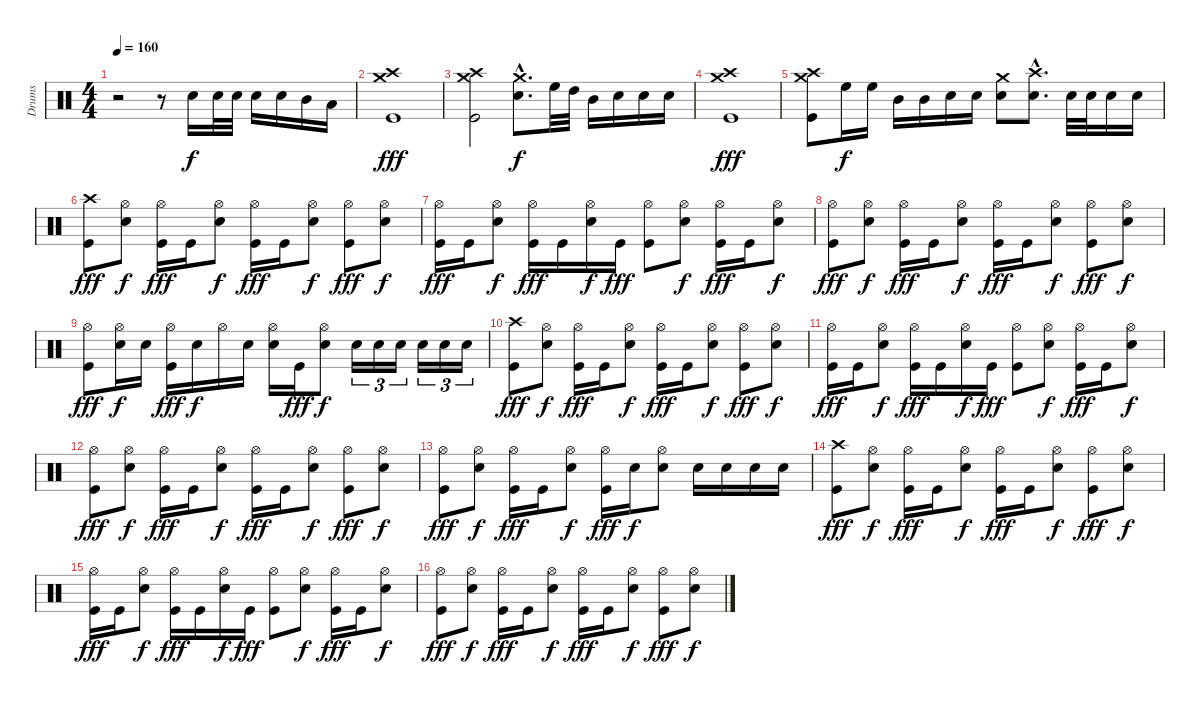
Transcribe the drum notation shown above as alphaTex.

\track ("Drums" "Drums") {instrument percussion}
\staff {score}
\articulation defaults
\ts (4 4)
\tempo 160
\clef neutral
\ks c
r.2{dy f} r.8 "Electric Snare (hit)".16 "Electric Snare (hit)".32 "Electric Snare (hit)".32 "Electric Snare (hit)".16 "Electric Snare (hit)".16 "Mid Tom (hit)".16 "Low Tom (hit)".16 |
("Crash medium (hit)" "Crash high (hit)" "Kick (hit)").1{dy fff} |
("Crash high (hit)" "Crash medium (hit)" "Kick (hit)").2 ("Crash medium (hit)"{hac} "Electric Snare (hit)"{hac}).8{d dy f} "High Floor Tom (hit)".32 "High Tom (hit)".32 "Mid Tom (hit)".16 "Electric Snare (hit)".16 "Electric Snare (hit)".16 "Electric Snare (hit)".16 |
("Crash medium (hit)" "Crash high (hit)" "Kick (hit)").1{dy fff} |
("Crash medium (hit)" "Crash high (hit)" "Kick (hit)").8 "High Floor Tom (hit)".16{dy f} "High Floor Tom (hit)".16 "Mid Tom (hit)".16 "Mid Tom (hit)".16 "Electric Snare (hit)".16 "Electric Snare (hit)".16 ("Crash medium (hit)" "Electric Snare (hit)").8 ("Crash high (hit)"{hac} "Electric Snare (hit)"{hac}).8{d} "Electric Snare (hit)".32 "Electric Snare (hit)".32 "Electric Snare (hit)".16 "Electric Snare (hit)".16 |
("Crash high (hit)" "Kick (hit)").8{dy fff} ("Hi-Hat (open)" "Electric Snare (hit)").8{dy f} ("Hi-Hat (open)" "Kick (hit)").16{dy fff} "Kick (hit)".16 ("Hi-Hat (open)" "Electric Snare (hit)").8{dy f} ("Hi-Hat (open)" "Kick (hit)").16{dy fff} "Kick (hit)".16 ("Hi-Hat (open)" "Electric Snare (hit)").8{dy f} ("Hi-Hat (open)" "Kick (hit)").8{dy fff} ("Hi-Hat (open)" "Electric Snare (hit)").8{dy f} |
("Hi-Hat (open)" "Kick (hit)").16{dy fff} "Kick (hit)".16 ("Hi-Hat (open)" "Electric Snare (hit)").8{dy f} ("Hi-Hat (open)" "Kick (hit)").16{dy fff} "Kick (hit)".16 ("Hi-Hat (open)" "Electric Snare (hit)").16{dy f} "Kick (hit)".16{dy fff} ("Hi-Hat (open)" "Kick (hit)").8 ("Hi-Hat (open)" "Electric Snare (hit)").8{dy f} ("Hi-Hat (open)" "Kick (hit)").16{dy fff} "Kick (hit)".16 ("Hi-Hat (open)" "Electric Snare (hit)").8{dy f} |
("Hi-Hat (open)" "Kick (hit)").8{dy fff} ("Hi-Hat (open)" "Electric Snare (hit)").8{dy f} ("Hi-Hat (open)" "Kick (hit)").16{dy fff} "Kick (hit)".16 ("Hi-Hat (open)" "Electric Snare (hit)").8{dy f} ("Hi-Hat (open)" "Kick (hit)").16{dy fff} "Kick (hit)".16 ("Hi-Hat (open)" "Electric Snare (hit)").8{dy f} ("Hi-Hat (open)" "Kick (hit)").8{dy fff} ("Hi-Hat (open)" "Electric Snare (hit)").8{dy f} |
("Hi-Hat (open)" "Kick (hit)").8{dy fff} ("Hi-Hat (open)" "Electric Snare (hit)").16{dy f} "Electric Snare (hit)".16 ("Hi-Hat (open)" "Kick (hit)").16{dy fff} "Electric Snare (hit)".16{dy f} "Hi-Hat (open)".16 "Electric Snare (hit)".16 ("Hi-Hat (open)" "Electric Snare (hit)").16 "Kick (hit)".16{dy fff} ("Hi-Hat (open)" "Electric Snare (hit)").8{dy f} "Electric Snare (hit)".16{tu (3 2)} "Electric Snare (hit)".16{tu (3 2)} "Electric Snare (hit)".16{tu (3 2)} "Electric Snare (hit)".16{tu (3 2)} "Electric Snare (hit)".16{tu (3 2)} "Electric Snare (hit)".16{tu (3 2)} |
("Crash high (hit)" "Kick (hit)").8{dy fff} ("Hi-Hat (open)" "Electric Snare (hit)").8{dy f} ("Hi-Hat (open)" "Kick (hit)").16{dy fff} "Kick (hit)".16 ("Hi-Hat (open)" "Electric Snare (hit)").8{dy f} ("Hi-Hat (open)" "Kick (hit)").16{dy fff} "Kick (hit)".16 ("Hi-Hat (open)" "Electric Snare (hit)").8{dy f} ("Hi-Hat (open)" "Kick (hit)").8{dy fff} ("Hi-Hat (open)" "Electric Snare (hit)").8{dy f} |
("Hi-Hat (open)" "Kick (hit)").16{dy fff} "Kick (hit)".16 ("Hi-Hat (open)" "Electric Snare (hit)").8{dy f} ("Hi-Hat (open)" "Kick (hit)").16{dy fff} "Kick (hit)".16 ("Hi-Hat (open)" "Electric Snare (hit)").16{dy f} "Kick (hit)".16{dy fff} ("Hi-Hat (open)" "Kick (hit)").8 ("Hi-Hat (open)" "Electric Snare (hit)").8{dy f} ("Hi-Hat (open)" "Kick (hit)").16{dy fff} "Kick (hit)".16 ("Hi-Hat (open)" "Electric Snare (hit)").8{dy f} |
("Hi-Hat (open)" "Kick (hit)").8{dy fff} ("Hi-Hat (open)" "Electric Snare (hit)").8{dy f} ("Hi-Hat (open)" "Kick (hit)").16{dy fff} "Kick (hit)".16 ("Hi-Hat (open)" "Electric Snare (hit)").8{dy f} ("Hi-Hat (open)" "Kick (hit)").16{dy fff} "Kick (hit)".16 ("Hi-Hat (open)" "Electric Snare (hit)").8{dy f} ("Hi-Hat (open)" "Kick (hit)").8{dy fff} ("Hi-Hat (open)" "Electric Snare (hit)").8{dy f} |
("Hi-Hat (open)" "Kick (hit)").8{dy fff} ("Hi-Hat (open)" "Electric Snare (hit)").8{dy f} ("Hi-Hat (open)" "Kick (hit)").16{dy fff} "Kick (hit)".16 ("Hi-Hat (open)" "Electric Snare (hit)").8{dy f} ("Hi-Hat (open)" "Kick (hit)").16{dy fff} "Electric Snare (hit)".16{dy f} ("Hi-Hat (open)" "Electric Snare (hit)").8 "Electric Snare (hit)".16 "Electric Snare (hit)".16 "Electric Snare (hit)".16 "Electric Snare (hit)".16 |
("Crash high (hit)" "Kick (hit)").8{dy fff} ("Hi-Hat (open)" "Electric Snare (hit)").8{dy f} ("Hi-Hat (open)" "Kick (hit)").16{dy fff} "Kick (hit)".16 ("Hi-Hat (open)" "Electric Snare (hit)").8{dy f} ("Hi-Hat (open)" "Kick (hit)").16{dy fff} "Kick (hit)".16 ("Hi-Hat (open)" "Electric Snare (hit)").8{dy f} ("Hi-Hat (open)" "Kick (hit)").8{dy fff} ("Hi-Hat (open)" "Electric Snare (hit)").8{dy f} |
("Hi-Hat (open)" "Kick (hit)").16{dy fff} "Kick (hit)".16 ("Hi-Hat (open)" "Electric Snare (hit)").8{dy f} ("Hi-Hat (open)" "Kick (hit)").16{dy fff} "Kick (hit)".16 ("Hi-Hat (open)" "Electric Snare (hit)").16{dy f} "Kick (hit)".16{dy fff} ("Hi-Hat (open)" "Kick (hit)").8 ("Hi-Hat (open)" "Electric Snare (hit)").8{dy f} ("Hi-Hat (open)" "Kick (hit)").16{dy fff} "Kick (hit)".16 ("Hi-Hat (open)" "Electric Snare (hit)").8{dy f} |
("Hi-Hat (open)" "Kick (hit)").8{dy fff} ("Hi-Hat (open)" "Electric Snare (hit)").8{dy f} ("Hi-Hat (open)" "Kick (hit)").16{dy fff} "Kick (hit)".16 ("Hi-Hat (open)" "Electric Snare (hit)").8{dy f} ("Hi-Hat (open)" "Kick (hit)").16{dy fff} "Kick (hit)".16 ("Hi-Hat (open)" "Electric Snare (hit)").8{dy f} ("Hi-Hat (open)" "Kick (hit)").8{dy fff} ("Hi-Hat (open)" "Electric Snare (hit)").8{dy f}
